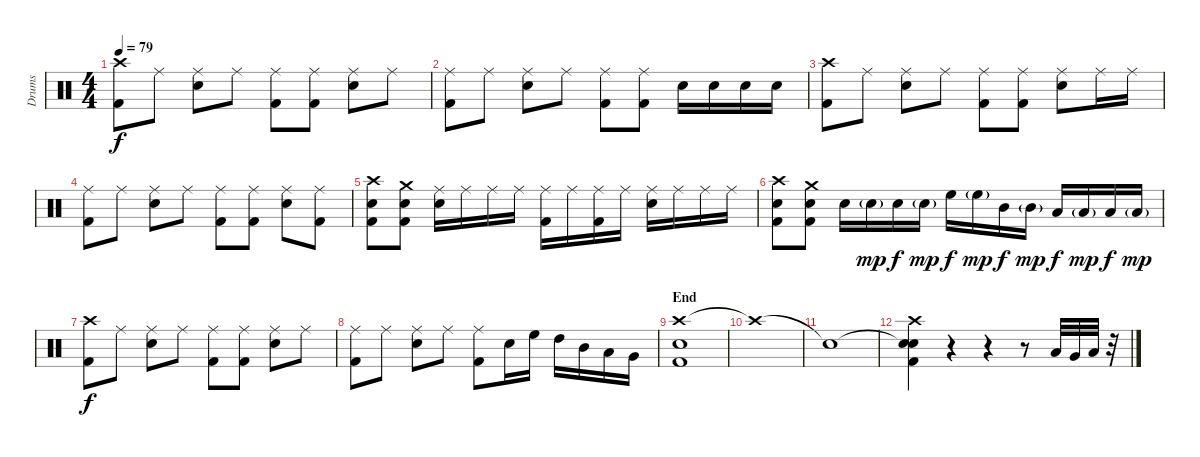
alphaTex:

\track ("Drums" "Drums") {instrument percussion}
\staff {score}
\articulation defaults
\ts (4 4)
\tempo 79
\clef neutral
\ks c
("Crash high (hit)" "Kick (hit) 2").8{dy f} "Ride (middle)".8 ("Ride (middle)" "Electric Snare (hit)").8 "Ride (middle)".8 ("Ride (middle)" "Kick (hit) 2").8 ("Ride (middle)" "Kick (hit) 2").8 ("Ride (middle)" "Electric Snare (hit)").8 "Ride (middle)".8 |
("Ride (middle)" "Kick (hit) 2").8 "Ride (middle)".8 ("Ride (middle)" "Electric Snare (hit)").8 "Ride (middle)".8 ("Ride (middle)" "Kick (hit) 2").8 ("Ride (middle)" "Kick (hit) 2").8 "Electric Snare (hit)".16 "Electric Snare (hit)".16 "Electric Snare (hit)".16 "Electric Snare (hit)".16 |
("Crash high (hit)" "Kick (hit) 2").8 "Ride (middle)".8 ("Ride (middle)" "Electric Snare (hit)").8 "Ride (middle)".8 ("Ride (middle)" "Kick (hit) 2").8 ("Ride (middle)" "Kick (hit) 2").8 ("Ride (middle)" "Electric Snare (hit)").8 "Ride (middle)".16 "Ride (middle)".16 |
("Ride (middle)" "Kick (hit) 2").8 "Ride (middle)".8 ("Ride (middle)" "Electric Snare (hit)").8 "Ride (middle)".8 ("Ride (middle)" "Kick (hit) 2").8 ("Ride (middle)" "Kick (hit) 2").8 ("Ride (middle)" "Electric Snare (hit)").8 ("Ride (middle)" "Kick (hit) 2").8 |
("Crash high (hit)" "Kick (hit) 2" "Electric Snare (hit)").8 ("Crash medium (hit)" "Kick (hit) 2" "Electric Snare (hit)").8 ("Ride (middle)" "Electric Snare (hit)").16 "Ride (middle)".16 "Ride (middle)".16 "Ride (middle)".16 ("Ride (middle)" "Kick (hit) 2").16 "Ride (middle)".16 ("Ride (middle)" "Kick (hit) 2").16 "Ride (middle)".16 ("Ride (middle)" "Electric Snare (hit)").16 "Ride (middle)".16 "Ride (middle)".16 "Ride (middle)".16 |
("Crash high (hit)" "Kick (hit) 2" "Electric Snare (hit)").8 ("Crash medium (hit)" "Kick (hit) 2" "Electric Snare (hit)").8 "Electric Snare (hit)".16 "Electric Snare (hit)"{g}.16{dy mp} "Electric Snare (hit)".16{dy f} "Electric Snare (hit)"{g}.16{dy mp} "High Floor Tom (hit)".16{dy f} "High Floor Tom (hit)"{g}.16{dy mp} "Mid Tom (hit)".16{dy f} "Mid Tom (hit)"{g}.16{dy mp} "Low Tom (hit)".16{dy f} "Low Tom (hit)"{g}.16{dy mp} "Low Floor Tom (hit)".16{dy f} "Low Floor Tom (hit)"{g}.16{dy mp} |
("Crash high (hit)" "Kick (hit) 2").8{dy f} "Ride (middle)".8 ("Ride (middle)" "Electric Snare (hit)").8 "Ride (middle)".8 ("Ride (middle)" "Kick (hit) 2").8 ("Ride (middle)" "Kick (hit) 2").8 ("Ride (middle)" "Electric Snare (hit)").8 "Ride (middle)".8 |
("Ride (middle)" "Kick (hit) 2").8 "Ride (middle)".8 ("Ride (middle)" "Electric Snare (hit)").8 "Ride (middle)".8 ("Ride (middle)" "Kick (hit) 2").8 "Electric Snare (hit)".16 "High Floor Tom (hit)".16 "High Tom (hit)".16 "Mid Tom (hit)".16 "Low Tom (hit)".16 "Very Low Tom (hit)".16 |
\section ("" "End")
("Crash high (hit)"{tr (49 64)} "Electric Snare (hit)" "Kick (hit) 2").1 |
"Crash high (hit)"{t}.1 |
"Snare (hit)"{t}.1 |
("Snare (hit)"{t} "Crash high (hit)" "Kick (hit) 2" "Electric Snare (hit)").4 r.4 r.4 r.8 "Low Tom (hit)".32 "Very Low Tom (hit)".32 "Low Floor Tom (hit)".32 r.32
